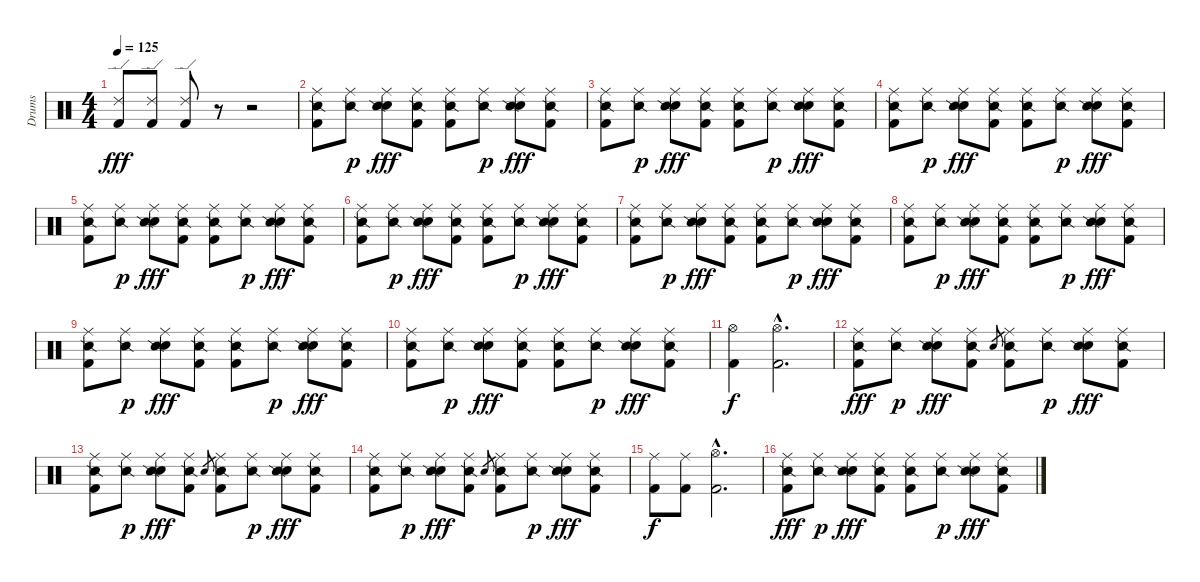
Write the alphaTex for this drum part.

\track ("Drums" "Drums") {instrument percussion}
\staff {score}
\articulation defaults
\ts (4 4)
\tempo 125
\clef neutral
\ks c
("Kick (hit) 2" "Ride (edge) 2").8{dy fff} ("Kick (hit) 2" "Ride (edge) 2").8 ("Kick (hit) 2" "Ride (edge) 2").8 r.8 r.2 |
("Kick (hit) 2" "Snare (side stick) 2" "Ride (middle)").8 ("Snare (side stick) 2" "Ride (middle)").8{dy p} ("Electric Snare (hit)" "Snare (side stick) 2" "Ride (middle)").8{dy fff} ("Kick (hit) 2" "Snare (side stick) 2" "Ride (middle)").8 ("Kick (hit) 2" "Snare (side stick) 2" "Ride (middle)").8 ("Snare (side stick) 2" "Ride (middle)").8{dy p} ("Electric Snare (hit)" "Snare (side stick) 2" "Ride (middle)").8{dy fff} ("Kick (hit) 2" "Snare (side stick) 2" "Ride (middle)").8 |
("Kick (hit) 2" "Snare (side stick) 2" "Ride (middle)").8 ("Snare (side stick) 2" "Ride (middle)").8{dy p} ("Electric Snare (hit)" "Snare (side stick) 2" "Ride (middle)").8{dy fff} ("Kick (hit) 2" "Snare (side stick) 2" "Ride (middle)").8 ("Kick (hit) 2" "Snare (side stick) 2" "Ride (middle)").8 ("Snare (side stick) 2" "Ride (middle)").8{dy p} ("Electric Snare (hit)" "Snare (side stick) 2" "Ride (middle)").8{dy fff} ("Kick (hit) 2" "Snare (side stick) 2" "Ride (middle)").8 |
("Kick (hit) 2" "Snare (side stick) 2" "Ride (middle)").8 ("Snare (side stick) 2" "Ride (middle)").8{dy p} ("Electric Snare (hit)" "Snare (side stick) 2" "Ride (middle)").8{dy fff} ("Kick (hit) 2" "Snare (side stick) 2" "Ride (middle)").8 ("Kick (hit) 2" "Snare (side stick) 2" "Ride (middle)").8 ("Snare (side stick) 2" "Ride (middle)").8{dy p} ("Electric Snare (hit)" "Snare (side stick) 2" "Ride (middle)").8{dy fff} ("Kick (hit) 2" "Snare (side stick) 2" "Ride (middle)").8 |
("Kick (hit) 2" "Snare (side stick) 2" "Ride (middle)").8 ("Snare (side stick) 2" "Ride (middle)").8{dy p} ("Electric Snare (hit)" "Snare (side stick) 2" "Ride (middle)").8{dy fff} ("Kick (hit) 2" "Snare (side stick) 2" "Ride (middle)").8 ("Kick (hit) 2" "Snare (side stick) 2" "Ride (middle)").8 ("Snare (side stick) 2" "Ride (middle)").8{dy p} ("Electric Snare (hit)" "Snare (side stick) 2" "Ride (middle)").8{dy fff} ("Kick (hit) 2" "Snare (side stick) 2" "Ride (middle)").8 |
("Kick (hit) 2" "Snare (side stick) 2" "Ride (middle)").8 ("Snare (side stick) 2" "Ride (middle)").8{dy p} ("Electric Snare (hit)" "Snare (side stick) 2" "Ride (middle)").8{dy fff} ("Kick (hit) 2" "Snare (side stick) 2" "Ride (middle)").8 ("Kick (hit) 2" "Snare (side stick) 2" "Ride (middle)").8 ("Snare (side stick) 2" "Ride (middle)").8{dy p} ("Electric Snare (hit)" "Snare (side stick) 2" "Ride (middle)").8{dy fff} ("Kick (hit) 2" "Snare (side stick) 2" "Ride (middle)").8 |
("Kick (hit) 2" "Snare (side stick) 2" "Ride (middle)").8 ("Snare (side stick) 2" "Ride (middle)").8{dy p} ("Electric Snare (hit)" "Snare (side stick) 2" "Ride (middle)").8{dy fff} ("Kick (hit) 2" "Snare (side stick) 2" "Ride (middle)").8 ("Kick (hit) 2" "Snare (side stick) 2" "Ride (middle)").8 ("Snare (side stick) 2" "Ride (middle)").8{dy p} ("Electric Snare (hit)" "Snare (side stick) 2" "Ride (middle)").8{dy fff} ("Kick (hit) 2" "Snare (side stick) 2" "Ride (middle)").8 |
("Kick (hit) 2" "Snare (side stick) 2" "Ride (middle)").8 ("Snare (side stick) 2" "Ride (middle)").8{dy p} ("Electric Snare (hit)" "Snare (side stick) 2" "Ride (middle)").8{dy fff} ("Kick (hit) 2" "Snare (side stick) 2" "Ride (middle)").8 ("Kick (hit) 2" "Snare (side stick) 2" "Ride (middle)").8 ("Snare (side stick) 2" "Ride (middle)").8{dy p} ("Electric Snare (hit)" "Snare (side stick) 2" "Ride (middle)").8{dy fff} ("Kick (hit) 2" "Snare (side stick) 2" "Ride (middle)").8 |
("Kick (hit) 2" "Snare (side stick) 2" "Ride (middle)").8 ("Snare (side stick) 2" "Ride (middle)").8{dy p} ("Electric Snare (hit)" "Snare (side stick) 2" "Ride (middle)").8{dy fff} ("Kick (hit) 2" "Snare (side stick) 2" "Ride (middle)").8 ("Kick (hit) 2" "Snare (side stick) 2" "Ride (middle)").8 ("Snare (side stick) 2" "Ride (middle)").8{dy p} ("Electric Snare (hit)" "Snare (side stick) 2" "Ride (middle)").8{dy fff} ("Kick (hit) 2" "Snare (side stick) 2" "Ride (middle)").8 |
("Kick (hit) 2" "Snare (side stick) 2" "Ride (middle)").8 ("Snare (side stick) 2" "Ride (middle)").8{dy p} ("Electric Snare (hit)" "Snare (side stick) 2" "Ride (middle)").8{dy fff} ("Kick (hit) 2" "Snare (side stick) 2" "Ride (middle)").8 ("Kick (hit) 2" "Snare (side stick) 2" "Ride (middle)").8 ("Snare (side stick) 2" "Ride (middle)").8{dy p} ("Electric Snare (hit)" "Snare (side stick) 2" "Ride (middle)").8{dy fff} ("Kick (hit) 2" "Snare (side stick) 2" "Ride (middle)").8 |
("Kick (hit) 2" "Hi-Hat (open)").4{dy f} ("Kick (hit) 2"{hac} "Hi-Hat (open)"{hac}).2{d} |
("Kick (hit) 2" "Snare (side stick) 2" "Ride (middle)").8{dy fff} ("Snare (side stick) 2" "Ride (middle)").8{dy p} ("Electric Snare (hit)" "Snare (side stick) 2" "Ride (middle)").8{dy fff} ("Kick (hit) 2" "Snare (side stick) 2" "Ride (middle)").8 "Electric Snare (hit)".8{gr} ("Kick (hit) 2" "Snare (side stick) 2" "Ride (middle)").8 ("Snare (side stick) 2" "Ride (middle)").8{dy p} ("Electric Snare (hit)" "Snare (side stick) 2" "Ride (middle)").8{dy fff} ("Kick (hit) 2" "Snare (side stick) 2" "Ride (middle)").8 |
("Kick (hit) 2" "Snare (side stick) 2" "Ride (middle)").8 ("Snare (side stick) 2" "Ride (middle)").8{dy p} ("Electric Snare (hit)" "Snare (side stick) 2" "Ride (middle)").8{dy fff} ("Kick (hit) 2" "Snare (side stick) 2" "Ride (middle)").8 "Electric Snare (hit)".8{gr} ("Kick (hit) 2" "Snare (side stick) 2" "Ride (middle)").8 ("Snare (side stick) 2" "Ride (middle)").8{dy p} ("Electric Snare (hit)" "Snare (side stick) 2" "Ride (middle)").8{dy fff} ("Kick (hit) 2" "Snare (side stick) 2" "Ride (middle)").8 |
("Kick (hit) 2" "Snare (side stick) 2" "Ride (middle)").8 ("Snare (side stick) 2" "Ride (middle)").8{dy p} ("Electric Snare (hit)" "Snare (side stick) 2" "Ride (middle)").8{dy fff} ("Kick (hit) 2" "Snare (side stick) 2" "Ride (middle)").8 "Electric Snare (hit)".8{gr} ("Kick (hit) 2" "Snare (side stick) 2" "Ride (middle)").8 ("Snare (side stick) 2" "Ride (middle)").8{dy p} ("Electric Snare (hit)" "Snare (side stick) 2" "Ride (middle)").8{dy fff} ("Kick (hit) 2" "Snare (side stick) 2" "Ride (middle)").8 |
("Kick (hit) 2" "Ride (middle)").8{dy f} ("Kick (hit) 2" "Ride (middle)").8 ("Kick (hit) 2"{hac} "Hi-Hat (open)"{hac}).2{d} |
("Kick (hit) 2" "Snare (side stick) 2" "Ride (middle)").8{dy fff} ("Snare (side stick) 2" "Ride (middle)").8{dy p} ("Electric Snare (hit)" "Snare (side stick) 2" "Ride (middle)").8{dy fff} ("Kick (hit) 2" "Snare (side stick) 2" "Ride (middle)").8 ("Kick (hit) 2" "Snare (side stick) 2" "Ride (middle)").8 ("Snare (side stick) 2" "Ride (middle)").8{dy p} ("Electric Snare (hit)" "Snare (side stick) 2" "Ride (middle)").8{dy fff} ("Kick (hit) 2" "Snare (side stick) 2" "Ride (middle)").8
